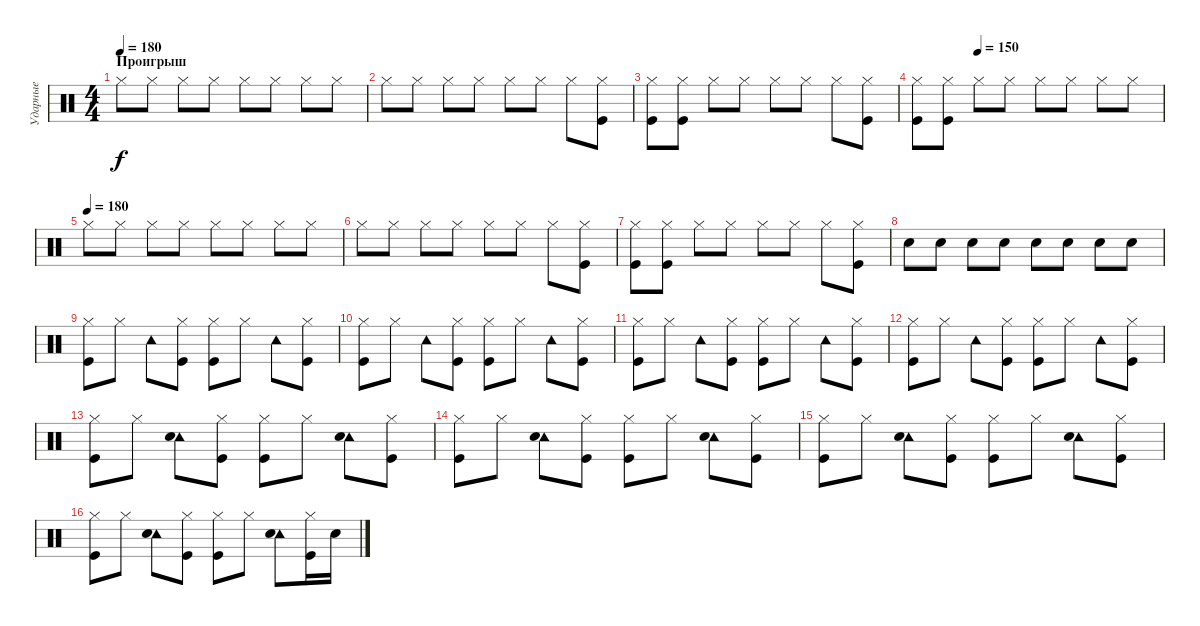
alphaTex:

\track ("Ударные" "Ударные") {instrument percussion}
\staff {score}
\articulation defaults
\ts (4 4)
\section ("" "Проигрыш")
\tempo 180
\clef neutral
\ks c "Hi-Hat (closed)".8{dy f} "Hi-Hat (closed)".8 "Hi-Hat (closed)".8 "Hi-Hat (closed)".8 "Hi-Hat (closed)".8 "Hi-Hat (closed)".8 "Hi-Hat (closed)".8 "Hi-Hat (closed)".8
|
"Hi-Hat (closed)".8 "Hi-Hat (closed)".8 "Hi-Hat (closed)".8 "Hi-Hat (closed)".8 "Hi-Hat (closed)".8 "Hi-Hat (closed)".8 "Hi-Hat (closed)".8 ("Hi-Hat (closed)" "Kick (hit)").8 |
("Hi-Hat (closed)" "Kick (hit)").8 ("Hi-Hat (closed)" "Kick (hit)").8 "Hi-Hat (closed)".8 "Hi-Hat (closed)".8 "Hi-Hat (closed)".8 "Hi-Hat (closed)".8 "Hi-Hat (closed)".8 ("Kick (hit)" "Hi-Hat (closed)").8 |
\tempo (150 0.25)
("Kick (hit)" "Hi-Hat (closed)").8 ("Kick (hit)" "Hi-Hat (closed)").8 "Hi-Hat (closed)".8 "Hi-Hat (closed)".8 "Hi-Hat (closed)".8 "Hi-Hat (closed)".8 "Hi-Hat (closed)".8 "Hi-Hat (closed)".8 |
\tempo (180)
"Hi-Hat (closed)".8 "Hi-Hat (closed)".8 "Hi-Hat (closed)".8 "Hi-Hat (closed)".8 "Hi-Hat (closed)".8 "Hi-Hat (closed)".8 "Hi-Hat (closed)".8 "Hi-Hat (closed)".8 |
"Hi-Hat (closed)".8 "Hi-Hat (closed)".8 "Hi-Hat (closed)".8 "Hi-Hat (closed)".8 "Hi-Hat (closed)".8 "Hi-Hat (closed)".8 "Hi-Hat (closed)".8 ("Hi-Hat (closed)" "Kick (hit)").8 |
("Hi-Hat (closed)" "Kick (hit)").8 ("Hi-Hat (closed)" "Kick (hit)").8 "Hi-Hat (closed)".8 "Hi-Hat (closed)".8 "Hi-Hat (closed)".8 "Hi-Hat (closed)".8 "Hi-Hat (closed)".8 ("Kick (hit)" "Hi-Hat (closed)").8 |
"Snare (hit) 2".8 "Snare (hit) 2".8 "Snare (hit) 2".8 "Snare (hit) 2".8 "Snare (hit) 2".8 "Snare (hit) 2".8 "Snare (hit) 2".8 "Snare (hit) 2".8 |
("Hi-Hat (closed)" "Kick (hit)").8 "Hi-Hat (closed)".8 "Tambourine (hit)".8 ("Hi-Hat (closed)" "Kick (hit)").8 ("Hi-Hat (closed)" "Kick (hit)").8 "Hi-Hat (closed)".8 "Tambourine (hit)".8 ("Hi-Hat (closed)" "Kick (hit)").8 |
("Hi-Hat (closed)" "Kick (hit)").8 "Hi-Hat (closed)".8 "Tambourine (hit)".8 ("Hi-Hat (closed)" "Kick (hit)").8 ("Hi-Hat (closed)" "Kick (hit)").8 "Hi-Hat (closed)".8 "Tambourine (hit)".8 ("Hi-Hat (closed)" "Kick (hit)").8 |
("Hi-Hat (closed)" "Kick (hit)").8 "Hi-Hat (closed)".8 "Tambourine (hit)".8 ("Hi-Hat (closed)" "Kick (hit)").8 ("Hi-Hat (closed)" "Kick (hit)").8 "Hi-Hat (closed)".8 "Tambourine (hit)".8 ("Hi-Hat (closed)" "Kick (hit)").8 |
("Hi-Hat (closed)" "Kick (hit)").8 "Hi-Hat (closed)".8 "Tambourine (hit)".8 ("Hi-Hat (closed)" "Kick (hit)").8 ("Hi-Hat (closed)" "Kick (hit)").8 "Hi-Hat (closed)".8 "Tambourine (hit)".8 ("Hi-Hat (closed)" "Kick (hit)").8 |
("Hi-Hat (closed)" "Kick (hit)").8 "Hi-Hat (closed)".8 ("Tambourine (hit)" "Snare (hit) 2").8 ("Hi-Hat (closed)" "Kick (hit)").8 ("Hi-Hat (closed)" "Kick (hit)").8 "Hi-Hat (closed)".8 ("Tambourine (hit)" "Snare (hit) 2").8 ("Hi-Hat (closed)" "Kick (hit)").8 |
("Hi-Hat (closed)" "Kick (hit)").8 "Hi-Hat (closed)".8 ("Tambourine (hit)" "Snare (hit) 2").8 ("Hi-Hat (closed)" "Kick (hit)").8 ("Hi-Hat (closed)" "Kick (hit)").8 "Hi-Hat (closed)".8 ("Tambourine (hit)" "Snare (hit) 2").8 ("Hi-Hat (closed)" "Kick (hit)").8 |
("Hi-Hat (closed)" "Kick (hit)").8 "Hi-Hat (closed)".8 ("Tambourine (hit)" "Snare (hit) 2").8 ("Hi-Hat (closed)" "Kick (hit)").8 ("Hi-Hat (closed)" "Kick (hit)").8 "Hi-Hat (closed)".8 ("Tambourine (hit)" "Snare (hit) 2").8 ("Hi-Hat (closed)" "Kick (hit)").8 |
("Hi-Hat (closed)" "Kick (hit)").8 "Hi-Hat (closed)".8 ("Tambourine (hit)" "Snare (hit) 2").8 ("Hi-Hat (closed)" "Kick (hit)").8 ("Hi-Hat (closed)" "Kick (hit)").8 "Hi-Hat (closed)".8 ("Tambourine (hit)" "Snare (hit) 2").8 ("Hi-Hat (closed)" "Kick (hit)").16 "Snare (hit) 2".16
